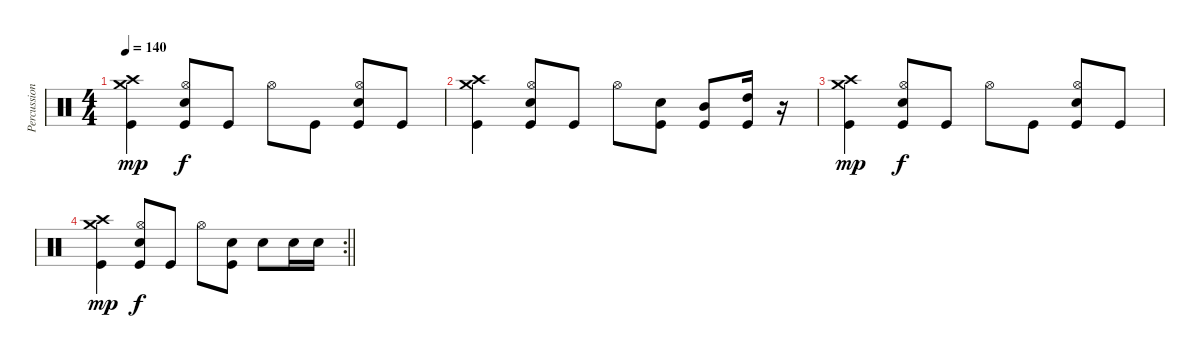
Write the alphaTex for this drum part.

\track ("Percussion" "Percussion") {instrument percussion}
\staff {score}
\articulation defaults
\ts (4 4)
\tempo 140
\clef neutral
\ks c
("Crash high (hit)" "Crash medium (hit)" "Kick (hit)").4{dy mp} ("Hi-Hat (open)" "Electric Snare (hit)" "Kick (hit)").8{dy f} "Kick (hit)".8 "Hi-Hat (open)".8 "Kick (hit)".8 ("Hi-Hat (open)" "Electric Snare (hit)" "Kick (hit)").8 "Kick (hit)".8 |
("Crash high (hit)" "Crash medium (hit)" "Kick (hit)").4 ("Hi-Hat (open)" "Electric Snare (hit)" "Kick (hit)").8 "Kick (hit)".8 "Hi-Hat (open)".8 ("Electric Snare (hit)" "Kick (hit)").8 ("Mid Tom (hit)" "Kick (hit)").8 ("High Tom (hit)" "Kick (hit)").16 r.16 |
("Crash high (hit)" "Crash medium (hit)" "Kick (hit)").4{dy mp} ("Hi-Hat (open)" "Electric Snare (hit)" "Kick (hit)").8{dy f} "Kick (hit)".8 "Hi-Hat (open)".8 "Kick (hit)".8 ("Hi-Hat (open)" "Electric Snare (hit)" "Kick (hit)").8 "Kick (hit)".8 |
\rc 2
\barLineRight lightlight
("Crash high (hit)" "Crash medium (hit)" "Kick (hit)").4{dy mp} ("Hi-Hat (open)" "Electric Snare (hit)" "Kick (hit)").8{dy f} "Kick (hit)".8 "Hi-Hat (open)".8 ("Electric Snare (hit)" "Kick (hit)").8 "Electric Snare (hit)".8 "Electric Snare (hit)".16 "Electric Snare (hit)".16
